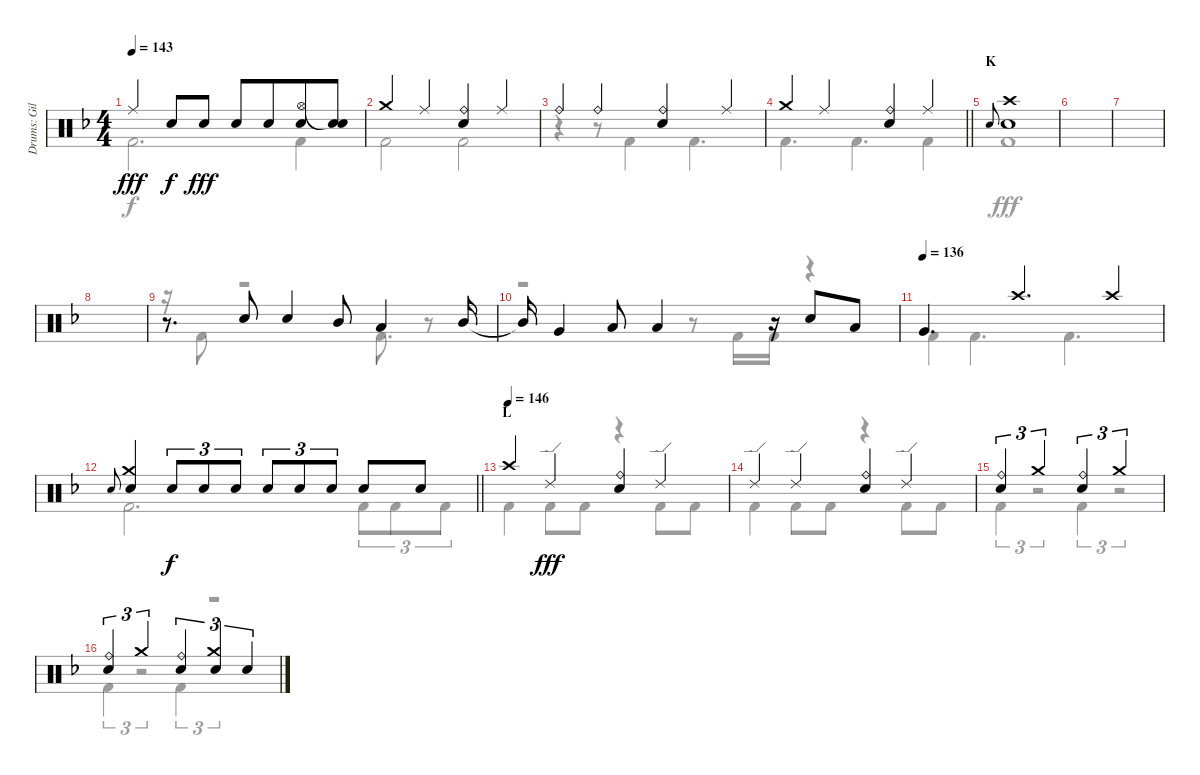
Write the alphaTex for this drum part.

\track ("Drums: Gil" "Drums: Gil") {instrument percussion}
\staff {score}
\articulation defaults
\voice
\ts (4 4)
\tempo 143
\clef neutral
\ks f "Ride (middle)".4{dy fff} "Snare (hit) 2".8{dy f} "Snare (hit) 2".8{dy fff} "Snare (hit) 2".8 "Snare (hit) 2".8{beam merge}
("Hi-Hat (open)" "Snare (hit) 2").8 ("Snare (hit)"{t} "Snare (hit) 2").8 |
"Crash medium (hit)".4 "Ride (middle)".4 ("Ride (bell)" "Snare (hit) 2").4 "Ride (middle)".4 |
"Ride (bell)".4 "Ride (bell)".4 ("Ride (bell)" "Snare (hit) 2").4 "Ride (middle)".4 |
\barLineRight lightlight "Crash medium (hit)".4 "Ride (middle)".4
("Ride (bell)" "Snare (hit) 2").4 "Ride (middle)".4 |
\section ("" "K")
"Electric Snare (hit)".8{gr onbeat} ("Crash high (hit)" "Snare (hit) 2").1 |
|
|
|
r.8{d} "Snare (hit) 2".8 "Snare (hit) 2".4 "Mid Tom (hit)".8 "Low Tom (hit)".4 "Mid Tom (hit)".16 |
"Mid Tom (hit)"{t}.16 "Very Low Tom (hit)".4 "Low Tom (hit)".8 "Low Floor Tom (hit)".4 r.16 "Snare (hit) 2".8 "Low Tom (hit)".8 |
\tempo (136)
"Very Low Tom (hit)".4{d} "Crash high (hit)".4{d} "Crash high (hit)".4 |
\barLineRight lightlight "Electric Snare (hit)".8{gr onbeat}
("Crash medium (hit)" "Snare (hit) 2").4 "Electric Snare (hit)".8{tu (3 2) dy f} "Electric Snare (hit)".8{tu (3 2)} "Electric Snare (hit)".8{tu (3 2)} "Snare (hit) 2".8{tu (3 2)} "Snare (hit)".8{tu (3 2)} "Snare (hit) 2".8{tu (3 2)} "Snare (hit) 2".8 "Snare (hit) 2".8 |
\section ("" "L")
\tempo (146)
"Crash high (hit)".4 "Ride (edge) 2".4{dy fff} ("Ride (bell)" "Snare (hit) 2").4 "Ride (edge) 2".4 |
"Ride (edge) 2".4 "Ride (edge) 2".4 ("Ride (bell)" "Snare (hit) 2").4 "Ride (edge) 2".4 |
("Ride (bell)" "Snare (hit) 2").4{tu (3 2)} "Crash medium (hit)".2{tu (3 2)} ("Ride (bell)" "Snare (hit) 2").4{tu (3 2)} "Crash medium (hit)".2{tu (3 2)} |
("Ride (bell)" "Snare (hit) 2").4{tu (3 2)} "Crash medium (hit)".2{tu (3 2)} ("Ride (bell)" "Snare (hit) 2").4{tu (3 2)} ("Crash medium (hit)" "Snare (hit) 2").4{tu (3 2)} "Snare (hit) 2".4{tu (3 2)}
\voice
\clef neutral
\ottava regular
\simile none
\ks f "Kick (hit) 2".2{d dy f} "Kick (hit) 2".4
|
"Kick (hit) 2".2 "Kick (hit) 2".2 |
r.4 r.8 "Kick (hit) 2".4 "Kick (hit) 2".4{d} |
\barLineRight lightlight "Kick (hit) 2".4{d} "Kick (hit) 2".4{d} "Kick (hit) 2".4
|
"Kick (hit) 2".1{dy fff} |
|
|
|
r.16 "Kick (hit) 2".8 r.2 "Kick (hit) 2".8{d} r.8 |
r.2 r.8 "Kick (hit) 2".16 "Kick (hit) 2".16 r.4 |
"Kick (hit) 2".4 "Kick (hit) 2".4{d} "Kick (hit) 2".4{d} |
\barLineRight lightlight "Kick (hit) 2".2{d} "Kick (hit) 2".8{tu (3 2)} "Kick (hit) 2".8{tu (3 2)} "Kick (hit) 2".8{tu (3 2)}
|
"Kick (hit) 2".4 "Kick (hit) 2".8 "Kick (hit) 2".8 r.4 "Kick (hit) 2".8 "Kick (hit) 2".8 |
"Kick (hit) 2".4 "Kick (hit) 2".8 "Kick (hit) 2".8 r.4 "Kick (hit) 2".8 "Kick (hit) 2".8 |
"Kick (hit) 2".4{tu (3 2)} r.2{tu (3 2)} "Kick (hit) 2".4{tu (3 2)} r.2{tu (3 2)} |
"Kick (hit) 2".4{tu (3 2)} r.2{tu (3 2)} "Kick (hit) 2".4{tu (3 2)} r.2{tu (3 2)}
